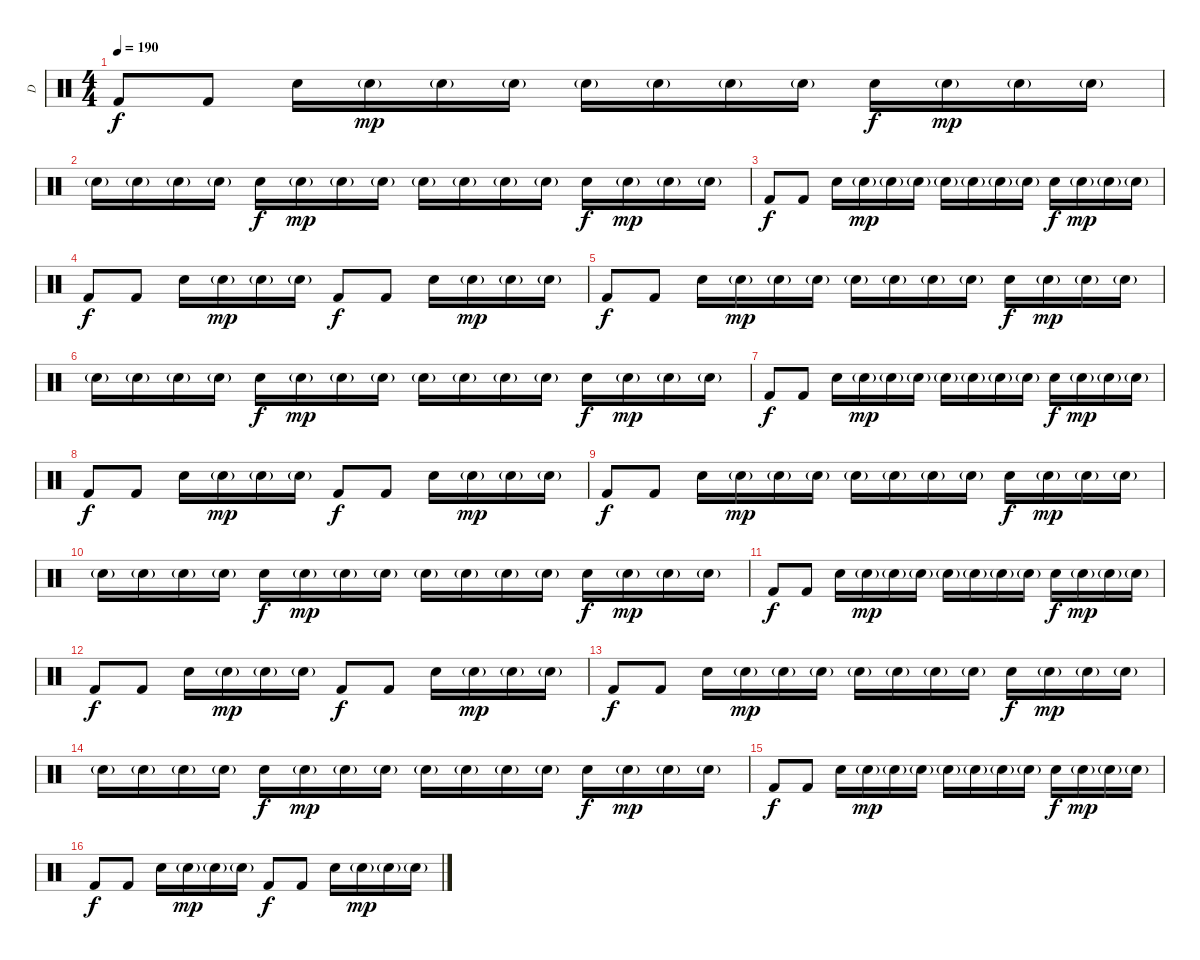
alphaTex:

\track ("D" "D") {instrument percussion}
\staff {score}
\articulation defaults
\ts (4 4)
\tempo 190
\clef neutral
\ks c "Kick (hit) 2".8{dy f} "Kick (hit) 2".8 "Electric Snare (hit)".16 "Electric Snare (hit)"{g}.16{dy mp} "Electric Snare (hit)"{g}.16 "Electric Snare (hit)"{g}.16 "Electric Snare (hit)"{g}.16 "Electric Snare (hit)"{g}.16 "Electric Snare (hit)"{g}.16 "Electric Snare (hit)"{g}.16 "Electric Snare (hit)".16{dy f} "Electric Snare (hit)"{g}.16{dy mp} "Electric Snare (hit)"{g}.16 "Electric Snare (hit)"{g}.16
|
"Electric Snare (hit)"{g}.16 "Electric Snare (hit)"{g}.16 "Electric Snare (hit)"{g}.16 "Electric Snare (hit)"{g}.16 "Electric Snare (hit)".16{dy f} "Electric Snare (hit)"{g}.16{dy mp} "Electric Snare (hit)"{g}.16 "Electric Snare (hit)"{g}.16 "Electric Snare (hit)"{g}.16 "Electric Snare (hit)"{g}.16 "Electric Snare (hit)"{g}.16 "Electric Snare (hit)"{g}.16 "Electric Snare (hit)".16{dy f} "Electric Snare (hit)"{g}.16{dy mp} "Electric Snare (hit)"{g}.16 "Electric Snare (hit)"{g}.16 |
"Kick (hit) 2".8{dy f} "Kick (hit) 2".8 "Electric Snare (hit)".16 "Electric Snare (hit)"{g}.16{dy mp} "Electric Snare (hit)"{g}.16 "Electric Snare (hit)"{g}.16 "Electric Snare (hit)"{g}.16 "Electric Snare (hit)"{g}.16 "Electric Snare (hit)"{g}.16 "Electric Snare (hit)"{g}.16 "Electric Snare (hit)".16{dy f} "Electric Snare (hit)"{g}.16{dy mp} "Electric Snare (hit)"{g}.16 "Electric Snare (hit)"{g}.16 |
"Kick (hit) 2".8{dy f} "Kick (hit) 2".8 "Electric Snare (hit)".16 "Electric Snare (hit)"{g}.16{dy mp} "Electric Snare (hit)"{g}.16 "Electric Snare (hit)"{g}.16 "Kick (hit) 2".8{dy f} "Kick (hit) 2".8 "Electric Snare (hit)".16 "Electric Snare (hit)"{g}.16{dy mp} "Electric Snare (hit)"{g}.16 "Electric Snare (hit)"{g}.16 |
"Kick (hit) 2".8{dy f} "Kick (hit) 2".8 "Electric Snare (hit)".16 "Electric Snare (hit)"{g}.16{dy mp} "Electric Snare (hit)"{g}.16 "Electric Snare (hit)"{g}.16 "Electric Snare (hit)"{g}.16 "Electric Snare (hit)"{g}.16 "Electric Snare (hit)"{g}.16 "Electric Snare (hit)"{g}.16 "Electric Snare (hit)".16{dy f} "Electric Snare (hit)"{g}.16{dy mp} "Electric Snare (hit)"{g}.16 "Electric Snare (hit)"{g}.16 |
"Electric Snare (hit)"{g}.16 "Electric Snare (hit)"{g}.16 "Electric Snare (hit)"{g}.16 "Electric Snare (hit)"{g}.16 "Electric Snare (hit)".16{dy f} "Electric Snare (hit)"{g}.16{dy mp} "Electric Snare (hit)"{g}.16 "Electric Snare (hit)"{g}.16 "Electric Snare (hit)"{g}.16 "Electric Snare (hit)"{g}.16 "Electric Snare (hit)"{g}.16 "Electric Snare (hit)"{g}.16 "Electric Snare (hit)".16{dy f} "Electric Snare (hit)"{g}.16{dy mp} "Electric Snare (hit)"{g}.16 "Electric Snare (hit)"{g}.16 |
"Kick (hit) 2".8{dy f} "Kick (hit) 2".8 "Electric Snare (hit)".16 "Electric Snare (hit)"{g}.16{dy mp} "Electric Snare (hit)"{g}.16 "Electric Snare (hit)"{g}.16 "Electric Snare (hit)"{g}.16 "Electric Snare (hit)"{g}.16 "Electric Snare (hit)"{g}.16 "Electric Snare (hit)"{g}.16 "Electric Snare (hit)".16{dy f} "Electric Snare (hit)"{g}.16{dy mp} "Electric Snare (hit)"{g}.16 "Electric Snare (hit)"{g}.16 |
"Kick (hit) 2".8{dy f} "Kick (hit) 2".8 "Electric Snare (hit)".16 "Electric Snare (hit)"{g}.16{dy mp} "Electric Snare (hit)"{g}.16 "Electric Snare (hit)"{g}.16 "Kick (hit) 2".8{dy f} "Kick (hit) 2".8 "Electric Snare (hit)".16 "Electric Snare (hit)"{g}.16{dy mp} "Electric Snare (hit)"{g}.16 "Electric Snare (hit)"{g}.16 |
"Kick (hit) 2".8{dy f} "Kick (hit) 2".8 "Electric Snare (hit)".16 "Electric Snare (hit)"{g}.16{dy mp} "Electric Snare (hit)"{g}.16 "Electric Snare (hit)"{g}.16 "Electric Snare (hit)"{g}.16 "Electric Snare (hit)"{g}.16 "Electric Snare (hit)"{g}.16 "Electric Snare (hit)"{g}.16 "Electric Snare (hit)".16{dy f} "Electric Snare (hit)"{g}.16{dy mp} "Electric Snare (hit)"{g}.16 "Electric Snare (hit)"{g}.16 |
"Electric Snare (hit)"{g}.16 "Electric Snare (hit)"{g}.16 "Electric Snare (hit)"{g}.16 "Electric Snare (hit)"{g}.16 "Electric Snare (hit)".16{dy f} "Electric Snare (hit)"{g}.16{dy mp} "Electric Snare (hit)"{g}.16 "Electric Snare (hit)"{g}.16 "Electric Snare (hit)"{g}.16 "Electric Snare (hit)"{g}.16 "Electric Snare (hit)"{g}.16 "Electric Snare (hit)"{g}.16 "Electric Snare (hit)".16{dy f} "Electric Snare (hit)"{g}.16{dy mp} "Electric Snare (hit)"{g}.16 "Electric Snare (hit)"{g}.16 |
"Kick (hit) 2".8{dy f} "Kick (hit) 2".8 "Electric Snare (hit)".16 "Electric Snare (hit)"{g}.16{dy mp} "Electric Snare (hit)"{g}.16 "Electric Snare (hit)"{g}.16 "Electric Snare (hit)"{g}.16 "Electric Snare (hit)"{g}.16 "Electric Snare (hit)"{g}.16 "Electric Snare (hit)"{g}.16 "Electric Snare (hit)".16{dy f} "Electric Snare (hit)"{g}.16{dy mp} "Electric Snare (hit)"{g}.16 "Electric Snare (hit)"{g}.16 |
"Kick (hit) 2".8{dy f} "Kick (hit) 2".8 "Electric Snare (hit)".16 "Electric Snare (hit)"{g}.16{dy mp} "Electric Snare (hit)"{g}.16 "Electric Snare (hit)"{g}.16 "Kick (hit) 2".8{dy f} "Kick (hit) 2".8 "Electric Snare (hit)".16 "Electric Snare (hit)"{g}.16{dy mp} "Electric Snare (hit)"{g}.16 "Electric Snare (hit)"{g}.16 |
"Kick (hit) 2".8{dy f} "Kick (hit) 2".8 "Electric Snare (hit)".16 "Electric Snare (hit)"{g}.16{dy mp} "Electric Snare (hit)"{g}.16 "Electric Snare (hit)"{g}.16 "Electric Snare (hit)"{g}.16 "Electric Snare (hit)"{g}.16 "Electric Snare (hit)"{g}.16 "Electric Snare (hit)"{g}.16 "Electric Snare (hit)".16{dy f} "Electric Snare (hit)"{g}.16{dy mp} "Electric Snare (hit)"{g}.16 "Electric Snare (hit)"{g}.16 |
"Electric Snare (hit)"{g}.16 "Electric Snare (hit)"{g}.16 "Electric Snare (hit)"{g}.16 "Electric Snare (hit)"{g}.16 "Electric Snare (hit)".16{dy f} "Electric Snare (hit)"{g}.16{dy mp} "Electric Snare (hit)"{g}.16 "Electric Snare (hit)"{g}.16 "Electric Snare (hit)"{g}.16 "Electric Snare (hit)"{g}.16 "Electric Snare (hit)"{g}.16 "Electric Snare (hit)"{g}.16 "Electric Snare (hit)".16{dy f} "Electric Snare (hit)"{g}.16{dy mp} "Electric Snare (hit)"{g}.16 "Electric Snare (hit)"{g}.16 |
"Kick (hit) 2".8{dy f} "Kick (hit) 2".8 "Electric Snare (hit)".16 "Electric Snare (hit)"{g}.16{dy mp} "Electric Snare (hit)"{g}.16 "Electric Snare (hit)"{g}.16 "Electric Snare (hit)"{g}.16 "Electric Snare (hit)"{g}.16 "Electric Snare (hit)"{g}.16 "Electric Snare (hit)"{g}.16 "Electric Snare (hit)".16{dy f} "Electric Snare (hit)"{g}.16{dy mp} "Electric Snare (hit)"{g}.16 "Electric Snare (hit)"{g}.16 |
"Kick (hit) 2".8{dy f} "Kick (hit) 2".8 "Electric Snare (hit)".16 "Electric Snare (hit)"{g}.16{dy mp} "Electric Snare (hit)"{g}.16 "Electric Snare (hit)"{g}.16 "Kick (hit) 2".8{dy f} "Kick (hit) 2".8 "Electric Snare (hit)".16 "Electric Snare (hit)"{g}.16{dy mp} "Electric Snare (hit)"{g}.16 "Electric Snare (hit)"{g}.16
